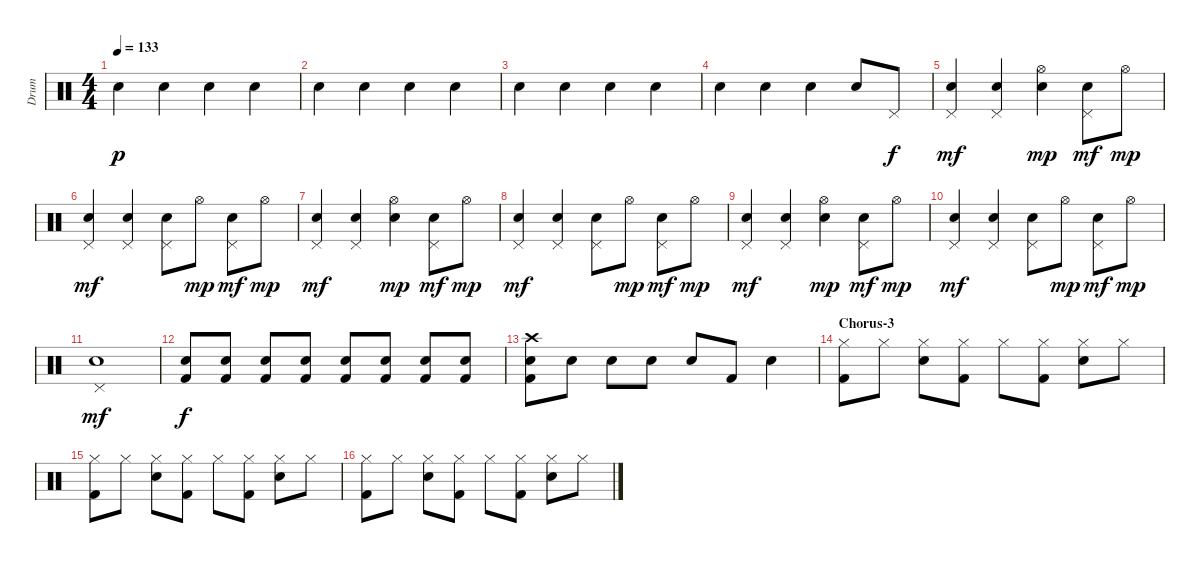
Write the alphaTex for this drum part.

\track ("Drum" "Drum") {instrument percussion}
\staff {score}
\articulation defaults
\ts (4 4)
\tempo 133
\clef neutral
\ks c "Snare (hit) 2".4{dy p} "Snare (hit) 2".4 "Snare (hit) 2".4 "Snare (hit) 2".4
|
"Snare (hit) 2".4 "Snare (hit) 2".4 "Snare (hit) 2".4 "Snare (hit) 2".4 |
"Snare (hit) 2".4 "Snare (hit) 2".4 "Snare (hit) 2".4 "Snare (hit) 2".4 |
"Snare (hit) 2".4 "Snare (hit) 2".4 "Snare (hit) 2".4 "Snare (hit) 2".8 "Pedal Hi-Hat (hit)".8{dy f} |
("Snare (hit) 2" "Pedal Hi-Hat (hit)").4{dy mf} ("Snare (hit) 2" "Pedal Hi-Hat (hit)").4 ("Snare (hit) 2" "Hi-Hat (open)").4{dy mp} ("Snare (hit) 2" "Pedal Hi-Hat (hit)").8{dy mf} "Hi-Hat (open)".8{dy mp} |
("Snare (hit) 2" "Pedal Hi-Hat (hit)").4{dy mf} ("Snare (hit) 2" "Pedal Hi-Hat (hit)").4 ("Snare (hit) 2" "Pedal Hi-Hat (hit)").8 "Hi-Hat (open)".8{dy mp} ("Snare (hit) 2" "Pedal Hi-Hat (hit)").8{dy mf} "Hi-Hat (open)".8{dy mp} |
("Snare (hit) 2" "Pedal Hi-Hat (hit)").4{dy mf} ("Snare (hit) 2" "Pedal Hi-Hat (hit)").4 ("Snare (hit) 2" "Hi-Hat (open)").4{dy mp} ("Snare (hit) 2" "Pedal Hi-Hat (hit)").8{dy mf} "Hi-Hat (open)".8{dy mp} |
("Snare (hit) 2" "Pedal Hi-Hat (hit)").4{dy mf} ("Snare (hit) 2" "Pedal Hi-Hat (hit)").4 ("Snare (hit) 2" "Pedal Hi-Hat (hit)").8 "Hi-Hat (open)".8{dy mp} ("Snare (hit) 2" "Pedal Hi-Hat (hit)").8{dy mf} "Hi-Hat (open)".8{dy mp} |
("Snare (hit) 2" "Pedal Hi-Hat (hit)").4{dy mf} ("Snare (hit) 2" "Pedal Hi-Hat (hit)").4 ("Snare (hit) 2" "Hi-Hat (open)").4{dy mp} ("Snare (hit) 2" "Pedal Hi-Hat (hit)").8{dy mf} "Hi-Hat (open)".8{dy mp} |
("Snare (hit) 2" "Pedal Hi-Hat (hit)").4{dy mf} ("Snare (hit) 2" "Pedal Hi-Hat (hit)").4 ("Snare (hit) 2" "Pedal Hi-Hat (hit)").8 "Hi-Hat (open)".8{dy mp} ("Snare (hit) 2" "Pedal Hi-Hat (hit)").8{dy mf} "Hi-Hat (open)".8{dy mp} |
("Snare (hit) 2" "Pedal Hi-Hat (hit)").1{dy mf} |
("Electric Snare (hit)" "Kick (hit) 2").8{dy f} ("Electric Snare (hit)" "Kick (hit) 2").8 ("Electric Snare (hit)" "Kick (hit) 2").8 ("Electric Snare (hit)" "Kick (hit) 2").8 ("Electric Snare (hit)" "Kick (hit) 2").8 ("Electric Snare (hit)" "Kick (hit) 2").8 ("Electric Snare (hit)" "Kick (hit) 2").8 ("Electric Snare (hit)" "Kick (hit) 2").8 |
("Crash high (hit)" "Snare (hit) 2" "Kick (hit) 2").8 "Electric Snare (hit)".8 "Electric Snare (hit)".8 "Electric Snare (hit)".8 "Electric Snare (hit)".8 "Kick (hit) 2".8 "Snare (hit) 2".4 |
\section ("" "Chorus-3")
("Hi-Hat (closed)" "Kick (hit) 2").8 "Hi-Hat (closed)".8 ("Snare (hit) 2" "Hi-Hat (closed)").8 ("Hi-Hat (closed)" "Kick (hit) 2").8 "Hi-Hat (closed)".8 ("Hi-Hat (closed)" "Kick (hit) 2").8 ("Snare (hit) 2" "Hi-Hat (closed)").8 "Hi-Hat (closed)".8 |
("Hi-Hat (closed)" "Kick (hit) 2").8 "Hi-Hat (closed)".8 ("Snare (hit) 2" "Hi-Hat (closed)").8 ("Hi-Hat (closed)" "Kick (hit) 2").8 "Hi-Hat (closed)".8 ("Hi-Hat (closed)" "Kick (hit) 2").8 ("Snare (hit) 2" "Hi-Hat (closed)").8 "Hi-Hat (closed)".8 |
("Hi-Hat (closed)" "Kick (hit) 2").8 "Hi-Hat (closed)".8 ("Snare (hit) 2" "Hi-Hat (closed)").8 ("Hi-Hat (closed)" "Kick (hit) 2").8 "Hi-Hat (closed)".8 ("Hi-Hat (closed)" "Kick (hit) 2").8 ("Snare (hit) 2" "Hi-Hat (closed)").8 "Hi-Hat (closed)".8
